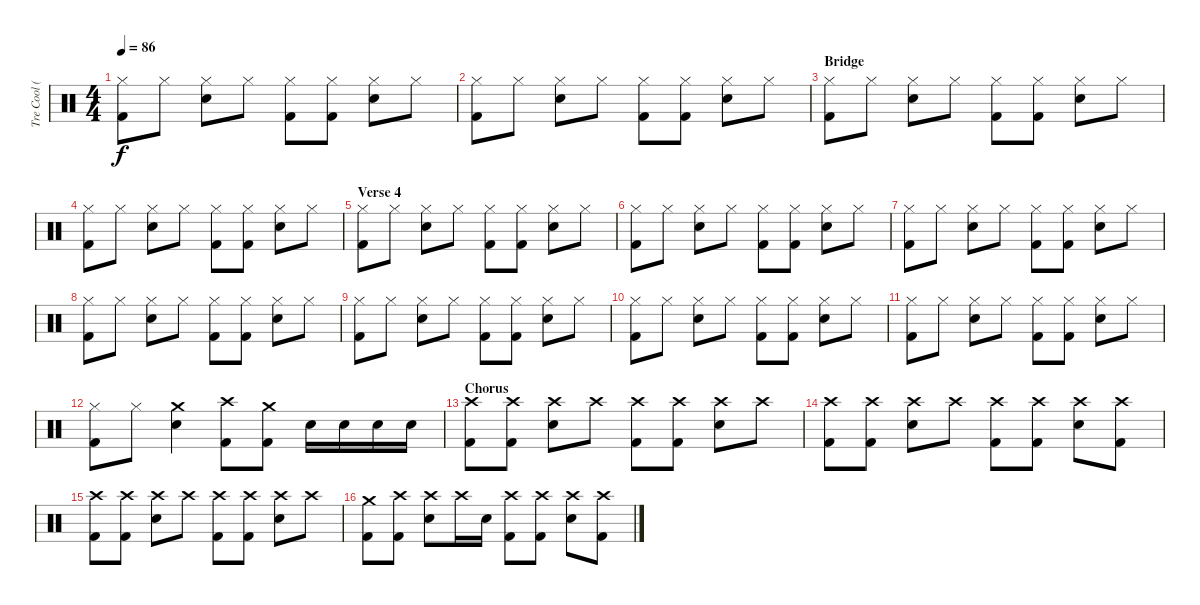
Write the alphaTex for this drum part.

\track ("Tre Cool (Drums)" "Tre Cool (") {instrument percussion}
\staff {score}
\articulation defaults
\ts (4 4)
\tempo 86
\clef neutral
\ks c
("Hi-Hat (closed)" "Kick (hit) 2").8{dy f} "Hi-Hat (closed)".8 ("Hi-Hat (closed)" "Snare (hit) 2").8 "Hi-Hat (closed)".8 ("Hi-Hat (closed)" "Kick (hit) 2").8 ("Hi-Hat (closed)" "Kick (hit) 2").8 ("Hi-Hat (closed)" "Snare (hit) 2").8 "Hi-Hat (closed)".8 |
("Hi-Hat (closed)" "Kick (hit) 2").8 "Hi-Hat (closed)".8 ("Hi-Hat (closed)" "Snare (hit) 2").8 "Hi-Hat (closed)".8 ("Hi-Hat (closed)" "Kick (hit) 2").8 ("Hi-Hat (closed)" "Kick (hit) 2").8 ("Hi-Hat (closed)" "Snare (hit) 2").8 "Hi-Hat (closed)".8 |
\section ("" "Bridge")
("Hi-Hat (closed)" "Kick (hit) 2").8 "Hi-Hat (closed)".8 ("Hi-Hat (closed)" "Snare (hit) 2").8 "Hi-Hat (closed)".8 ("Hi-Hat (closed)" "Kick (hit) 2").8 ("Hi-Hat (closed)" "Kick (hit) 2").8 ("Hi-Hat (closed)" "Snare (hit) 2").8 "Hi-Hat (closed)".8 |
("Hi-Hat (closed)" "Kick (hit) 2").8 "Hi-Hat (closed)".8 ("Hi-Hat (closed)" "Snare (hit) 2").8 "Hi-Hat (closed)".8 ("Hi-Hat (closed)" "Kick (hit) 2").8 ("Hi-Hat (closed)" "Kick (hit) 2").8 ("Hi-Hat (closed)" "Snare (hit) 2").8 "Hi-Hat (closed)".8 |
\section ("" "Verse 4")
("Hi-Hat (closed)" "Kick (hit) 2").8 "Hi-Hat (closed)".8 ("Hi-Hat (closed)" "Snare (hit) 2").8 "Hi-Hat (closed)".8 ("Hi-Hat (closed)" "Kick (hit) 2").8 ("Hi-Hat (closed)" "Kick (hit) 2").8 ("Hi-Hat (closed)" "Snare (hit) 2").8 "Hi-Hat (closed)".8 |
("Hi-Hat (closed)" "Kick (hit) 2").8 "Hi-Hat (closed)".8 ("Hi-Hat (closed)" "Snare (hit) 2").8 "Hi-Hat (closed)".8 ("Hi-Hat (closed)" "Kick (hit) 2").8 ("Hi-Hat (closed)" "Kick (hit) 2").8 ("Hi-Hat (closed)" "Snare (hit) 2").8 "Hi-Hat (closed)".8 |
("Hi-Hat (closed)" "Kick (hit) 2").8 "Hi-Hat (closed)".8 ("Hi-Hat (closed)" "Snare (hit) 2").8 "Hi-Hat (closed)".8 ("Hi-Hat (closed)" "Kick (hit) 2").8 ("Hi-Hat (closed)" "Kick (hit) 2").8 ("Hi-Hat (closed)" "Snare (hit) 2").8 "Hi-Hat (closed)".8 |
("Hi-Hat (closed)" "Kick (hit) 2").8 "Hi-Hat (closed)".8 ("Hi-Hat (closed)" "Snare (hit) 2").8 "Hi-Hat (closed)".8 ("Hi-Hat (closed)" "Kick (hit) 2").8 ("Hi-Hat (closed)" "Kick (hit) 2").8 ("Hi-Hat (closed)" "Snare (hit) 2").8 "Hi-Hat (closed)".8 |
("Hi-Hat (closed)" "Kick (hit) 2").8 "Hi-Hat (closed)".8 ("Hi-Hat (closed)" "Snare (hit) 2").8 "Hi-Hat (closed)".8 ("Hi-Hat (closed)" "Kick (hit) 2").8 ("Hi-Hat (closed)" "Kick (hit) 2").8 ("Hi-Hat (closed)" "Snare (hit) 2").8 "Hi-Hat (closed)".8 |
("Hi-Hat (closed)" "Kick (hit) 2").8 "Hi-Hat (closed)".8 ("Hi-Hat (closed)" "Snare (hit) 2").8 "Hi-Hat (closed)".8 ("Hi-Hat (closed)" "Kick (hit) 2").8 ("Hi-Hat (closed)" "Kick (hit) 2").8 ("Hi-Hat (closed)" "Snare (hit) 2").8 "Hi-Hat (closed)".8 |
("Hi-Hat (closed)" "Kick (hit) 2").8 "Hi-Hat (closed)".8 ("Hi-Hat (closed)" "Snare (hit) 2").8 "Hi-Hat (closed)".8 ("Hi-Hat (closed)" "Kick (hit) 2").8 ("Hi-Hat (closed)" "Kick (hit) 2").8 ("Hi-Hat (closed)" "Snare (hit) 2").8 "Hi-Hat (closed)".8 |
("Hi-Hat (closed)" "Kick (hit) 2").8 "Hi-Hat (closed)".8 ("Crash medium (hit)" "Snare (hit) 2").4 ("Crash high (hit)" "Kick (hit) 2").8 ("Crash medium (hit)" "Kick (hit) 2").8 "Snare (hit) 2".16 "Snare (hit) 2".16 "Snare (hit) 2".16 "Snare (hit) 2".16 |
\section ("" "Chorus")
("Crash high (hit)" "Kick (hit) 2").8 ("Crash high (hit)" "Kick (hit) 2").8 ("Crash high (hit)" "Snare (hit) 2").8 "Crash high (hit)".8 ("Crash high (hit)" "Kick (hit) 2").8 ("Crash high (hit)" "Kick (hit) 2").8 ("Crash high (hit)" "Snare (hit) 2").8 "Crash high (hit)".8 |
("Crash high (hit)" "Kick (hit) 2").8 ("Crash high (hit)" "Kick (hit) 2").8 ("Crash high (hit)" "Snare (hit) 2").8 "Crash high (hit)".8 ("Crash high (hit)" "Kick (hit) 2").8 ("Crash high (hit)" "Kick (hit) 2").8 ("Crash high (hit)" "Snare (hit) 2").8 ("Crash high (hit)" "Kick (hit) 2").8 |
("Crash high (hit)" "Kick (hit) 2").8 ("Crash high (hit)" "Kick (hit) 2").8 ("Crash high (hit)" "Snare (hit) 2").8 "Crash high (hit)".8 ("Crash high (hit)" "Kick (hit) 2").8 ("Crash high (hit)" "Kick (hit) 2").8 ("Crash high (hit)" "Snare (hit) 2").8 "Crash high (hit)".8 |
("Crash medium (hit)" "Kick (hit) 2").8 ("Crash high (hit)" "Kick (hit) 2").8 ("Crash high (hit)" "Snare (hit) 2").8 "Crash high (hit)".16 "Snare (hit) 2".16 ("Crash high (hit)" "Kick (hit) 2").8 ("Crash high (hit)" "Kick (hit) 2").8 ("Crash high (hit)" "Snare (hit) 2").8 ("Crash high (hit)" "Kick (hit) 2").8
